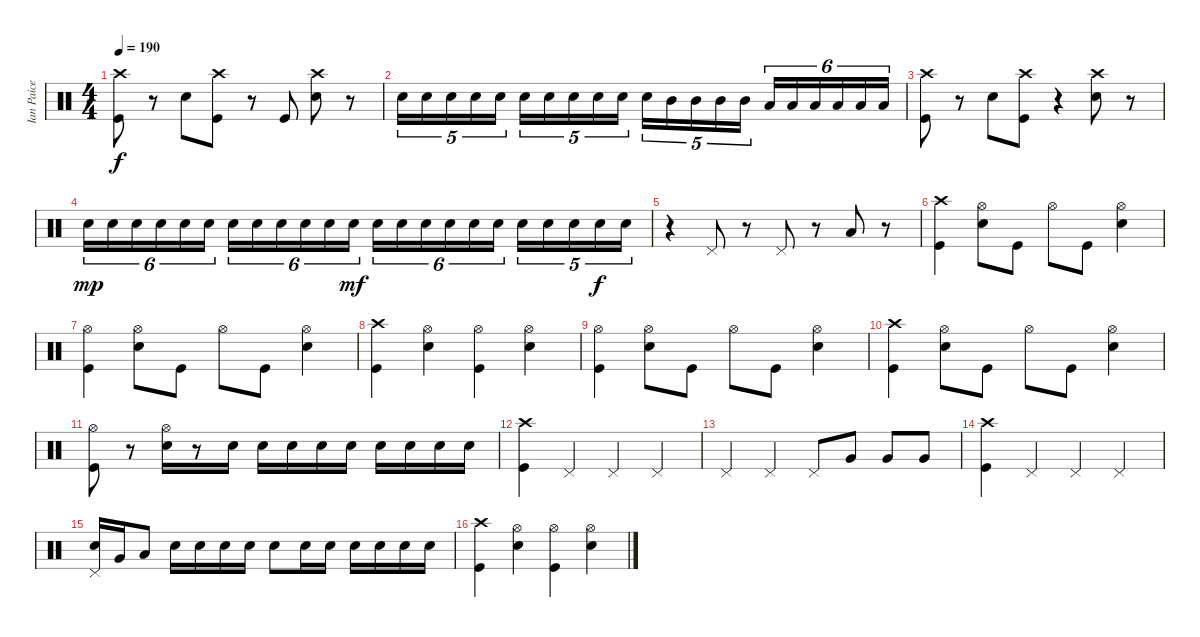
\track ("Ian Paice" "Ian Paice") {instrument percussion}
\staff {score}
\articulation defaults
\ts (4 4)
\tempo 190
\clef neutral
\ks c
("Crash high (hit)" "Kick (hit)").8{dy f} r.8 "Snare (hit) 2".8 ("Crash high (hit)" "Kick (hit)").8 r.8 "Kick (hit)".8 ("Snare (hit) 2" "Crash high (hit)").8 r.8 |
"Snare (hit) 2".16{tu (5 4)} "Snare (hit) 2".16{tu (5 4)} "Snare (hit) 2".16{tu (5 4)} "Snare (hit) 2".16{tu (5 4)} "Snare (hit) 2".16{tu (5 4)} "Snare (hit) 2".16{tu (5 4)} "Snare (hit) 2".16{tu (5 4)} "Snare (hit) 2".16{tu (5 4)} "Snare (hit) 2".16{tu (5 4)} "Snare (hit) 2".16{tu (5 4)} "Snare (hit) 2".16{tu (5 4)} "Mid Tom (hit)".16{tu (5 4)} "Mid Tom (hit)".16{tu (5 4)} "Mid Tom (hit)".16{tu (5 4)} "Mid Tom (hit)".16{tu (5 4)} "Low Tom (hit)".16{tu (6 4)} "Low Tom (hit)".16{tu (6 4)} "Low Tom (hit)".16{tu (6 4)} "Low Tom (hit)".16{tu (6 4)} "Low Tom (hit)".16{tu (6 4)} "Low Tom (hit)".16{tu (6 4)} |
("Crash high (hit)" "Kick (hit)").8 r.8 "Snare (hit) 2".8 ("Kick (hit)" "Crash high (hit)").8 r.4 ("Snare (hit) 2" "Crash high (hit)").8 r.8 |
"Snare (hit) 2".16{tu (6 4) dy mp} "Snare (hit) 2".16{tu (6 4)} "Snare (hit) 2".16{tu (6 4)} "Snare (hit) 2".16{tu (6 4)} "Snare (hit) 2".16{tu (6 4)} "Snare (hit) 2".16{tu (6 4)} "Snare (hit) 2".16{tu (6 4)} "Snare (hit) 2".16{tu (6 4)} "Snare (hit) 2".16{tu (6 4)} "Snare (hit) 2".16{tu (6 4)} "Snare (hit) 2".16{tu (6 4)} "Snare (hit) 2".16{tu (6 4) dy mf} "Snare (hit) 2".16{tu (6 4)} "Snare (hit) 2".16{tu (6 4)} "Snare (hit) 2".16{tu (6 4)} "Snare (hit) 2".16{tu (6 4)} "Snare (hit) 2".16{tu (6 4)} "Snare (hit) 2".16{tu (6 4)} "Snare (hit) 2".16{tu (5 4)} "Snare (hit) 2".16{tu (5 4)} "Snare (hit) 2".16{tu (5 4)} "Snare (hit) 2".16{tu (5 4) dy f} "Snare (hit) 2".16{tu (5 4)} |
r.4 "Pedal Hi-Hat (hit)".8 r.8 "Pedal Hi-Hat (hit)".8 r.8 "Low Tom (hit)".8 r.8 |
("Crash high (hit)" "Kick (hit)").4 ("Snare (hit) 2" "Hi-Hat (open)").8 "Kick (hit)".8 "Hi-Hat (open)".8 "Kick (hit)".8 ("Snare (hit) 2" "Hi-Hat (open)").4 |
("Kick (hit)" "Hi-Hat (open)").4 ("Hi-Hat (open)" "Snare (hit) 2").8 "Kick (hit)".8 "Hi-Hat (open)".8 "Kick (hit)".8 ("Hi-Hat (open)" "Snare (hit) 2").4 |
("Kick (hit)" "Crash high (hit)").4 ("Snare (hit) 2" "Hi-Hat (open)").4 ("Hi-Hat (open)" "Kick (hit)").4 ("Snare (hit) 2" "Hi-Hat (open)").4 |
("Hi-Hat (open)" "Kick (hit)").4 ("Hi-Hat (open)" "Snare (hit) 2").8 "Kick (hit)".8 "Hi-Hat (open)".8 "Kick (hit)".8 ("Snare (hit) 2" "Hi-Hat (open)").4 |
("Kick (hit)" "Crash high (hit)").4 ("Snare (hit) 2" "Hi-Hat (open)").8 "Kick (hit)".8 "Hi-Hat (open)".8 "Kick (hit)".8 ("Snare (hit) 2" "Hi-Hat (open)").4 |
("Kick (hit)" "Hi-Hat (open)").8 r.8 ("Snare (hit) 2" "Hi-Hat (open)").16 r.8 "Snare (hit) 2".16 "Snare (hit) 2".16 "Snare (hit) 2".16 "Snare (hit) 2".16 "Snare (hit) 2".16 "Snare (hit) 2".16 "Snare (hit) 2".16 "Snare (hit) 2".16 "Snare (hit) 2".16 |
("Kick (hit)" "Crash high (hit)").4 "Pedal Hi-Hat (hit)".4 "Pedal Hi-Hat (hit)".4 "Pedal Hi-Hat (hit)".4 |
"Pedal Hi-Hat (hit)".4 "Pedal Hi-Hat (hit)".4 "Pedal Hi-Hat (hit)".8 "Very Low Tom (hit)".8 "Very Low Tom (hit)".8 "Very Low Tom (hit)".8 |
("Kick (hit)" "Crash high (hit)").4 "Pedal Hi-Hat (hit)".4 "Pedal Hi-Hat (hit)".4 "Pedal Hi-Hat (hit)".4 |
("Snare (hit) 2" "Pedal Hi-Hat (hit)").16 "Very Low Tom (hit)".16 "Low Floor Tom (hit)".8 "Snare (hit) 2".16 "Snare (hit) 2".16 "Snare (hit) 2".16 "Snare (hit) 2".16 "Snare (hit) 2".8 "Snare (hit) 2".16 "Snare (hit) 2".16 "Snare (hit) 2".16 "Snare (hit) 2".16 "Snare (hit) 2".16 "Snare (hit) 2".16 |
("Kick (hit)" "Crash high (hit)").4 ("Hi-Hat (open)" "Snare (hit) 2").4 ("Hi-Hat (open)" "Kick (hit)").4 ("Snare (hit) 2" "Hi-Hat (open)").4
